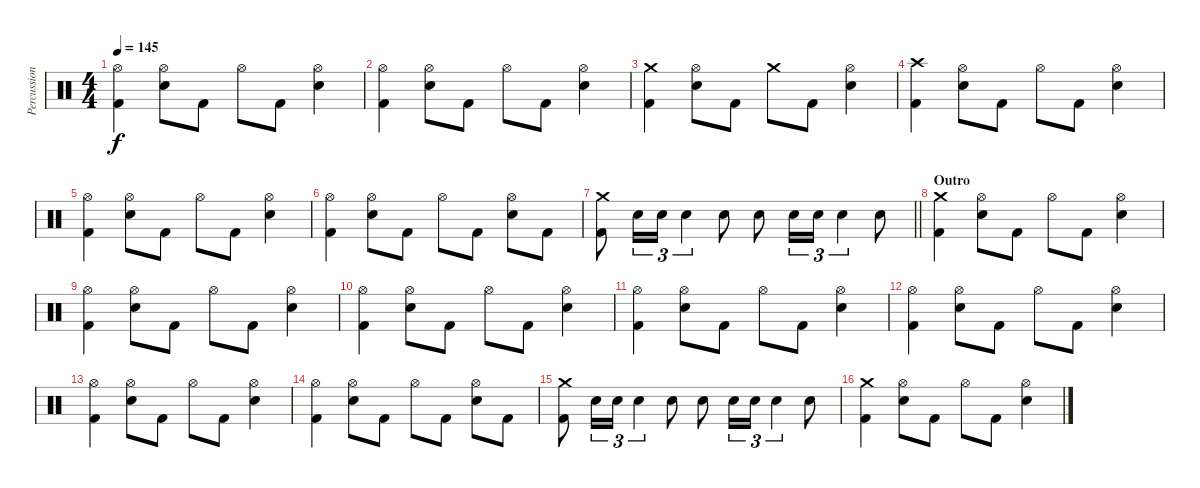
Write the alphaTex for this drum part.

\track ("Percussion" "Percussion") {instrument percussion}
\staff {score}
\articulation defaults
\ts (4 4)
\tempo 145
\clef neutral
\ks c
("Kick (hit) 2" "Hi-Hat (open)").4{dy f} ("Electric Snare (hit)" "Hi-Hat (open)").8 "Kick (hit) 2".8 "Hi-Hat (open)".8 "Kick (hit) 2".8 ("Electric Snare (hit)" "Hi-Hat (open)").4 |
("Kick (hit) 2" "Hi-Hat (open)").4 ("Electric Snare (hit)" "Hi-Hat (open)").8 "Kick (hit) 2".8 "Hi-Hat (open)".8 "Kick (hit) 2".8 ("Electric Snare (hit)" "Hi-Hat (open)").4 |
("Kick (hit) 2" "Crash medium (hit)").4 ("Electric Snare (hit)" "Hi-Hat (open)").8 "Kick (hit) 2".8 "Crash medium (hit)".8 "Kick (hit) 2".8 ("Electric Snare (hit)" "Hi-Hat (open)").4 |
("Kick (hit) 2" "Crash high (hit)").4 ("Electric Snare (hit)" "Hi-Hat (open)").8 "Kick (hit) 2".8 "Hi-Hat (open)".8 "Kick (hit) 2".8 ("Electric Snare (hit)" "Hi-Hat (open)").4 |
("Kick (hit) 2" "Hi-Hat (open)").4 ("Electric Snare (hit)" "Hi-Hat (open)").8 "Kick (hit) 2".8 "Hi-Hat (open)".8 "Kick (hit) 2".8 ("Electric Snare (hit)" "Hi-Hat (open)").4 |
("Kick (hit) 2" "Hi-Hat (open)").4 ("Electric Snare (hit)" "Hi-Hat (open)").8 "Kick (hit) 2".8 "Hi-Hat (open)".8 "Kick (hit) 2".8 ("Electric Snare (hit)" "Hi-Hat (open)").8 "Kick (hit) 2".8 |
\barLineRight lightlight
("Kick (hit) 2" "Crash medium (hit)").8 "Electric Snare (hit)".16{tu (3 2)} "Electric Snare (hit)".16{tu (3 2)} "Electric Snare (hit)".4{tu (3 2)} "Electric Snare (hit)".8 "Electric Snare (hit)".8 "Electric Snare (hit)".16{tu (3 2)} "Electric Snare (hit)".16{tu (3 2)} "Electric Snare (hit)".4{tu (3 2)} "Electric Snare (hit)".8 |
\section ("" "Outro")
("Kick (hit) 2" "Crash medium (hit)").4 ("Electric Snare (hit)" "Hi-Hat (open)").8 "Kick (hit) 2".8 "Hi-Hat (open)".8 "Kick (hit) 2".8 ("Electric Snare (hit)" "Hi-Hat (open)").4 |
("Kick (hit) 2" "Hi-Hat (open)").4 ("Electric Snare (hit)" "Hi-Hat (open)").8 "Kick (hit) 2".8 "Hi-Hat (open)".8 "Kick (hit) 2".8 ("Electric Snare (hit)" "Hi-Hat (open)").4 |
("Kick (hit) 2" "Hi-Hat (open)").4 ("Electric Snare (hit)" "Hi-Hat (open)").8 "Kick (hit) 2".8 "Hi-Hat (open)".8 "Kick (hit) 2".8 ("Electric Snare (hit)" "Hi-Hat (open)").4 |
("Kick (hit) 2" "Hi-Hat (open)").4 ("Electric Snare (hit)" "Hi-Hat (open)").8 "Kick (hit) 2".8 "Hi-Hat (open)".8 "Kick (hit) 2".8 ("Electric Snare (hit)" "Hi-Hat (open)").4 |
("Kick (hit) 2" "Hi-Hat (open)").4 ("Electric Snare (hit)" "Hi-Hat (open)").8 "Kick (hit) 2".8 "Hi-Hat (open)".8 "Kick (hit) 2".8 ("Electric Snare (hit)" "Hi-Hat (open)").4 |
("Kick (hit) 2" "Hi-Hat (open)").4 ("Electric Snare (hit)" "Hi-Hat (open)").8 "Kick (hit) 2".8 "Hi-Hat (open)".8 "Kick (hit) 2".8 ("Electric Snare (hit)" "Hi-Hat (open)").4 |
("Kick (hit) 2" "Hi-Hat (open)").4 ("Electric Snare (hit)" "Hi-Hat (open)").8 "Kick (hit) 2".8 "Hi-Hat (open)".8 "Kick (hit) 2".8 ("Electric Snare (hit)" "Hi-Hat (open)").8 "Kick (hit) 2".8 |
("Kick (hit) 2" "Crash medium (hit)").8 "Electric Snare (hit)".16{tu (3 2)} "Electric Snare (hit)".16{tu (3 2)} "Electric Snare (hit)".4{tu (3 2)} "Electric Snare (hit)".8 "Electric Snare (hit)".8 "Electric Snare (hit)".16{tu (3 2)} "Electric Snare (hit)".16{tu (3 2)} "Electric Snare (hit)".4{tu (3 2)} "Electric Snare (hit)".8 |
("Kick (hit) 2" "Crash medium (hit)").4 ("Electric Snare (hit)" "Hi-Hat (open)").8 "Kick (hit) 2".8 "Hi-Hat (open)".8 "Kick (hit) 2".8 ("Electric Snare (hit)" "Hi-Hat (open)").4
